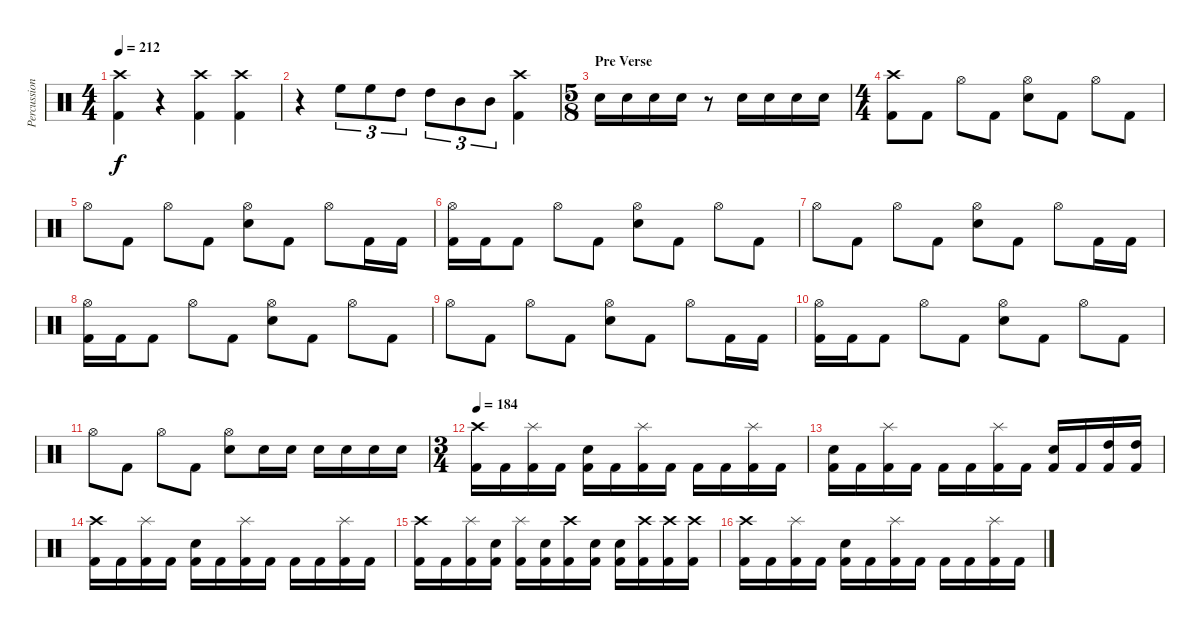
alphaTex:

\track ("Percussion" "Percussion") {instrument percussion}
\staff {score}
\articulation defaults
\ts (4 4)
\tempo 212
\clef neutral
\ks c
("Crash high (hit)" "Kick (hit) 2").4{dy f} r.4 ("Crash high (hit)" "Kick (hit) 2").4 ("Crash high (hit)" "Kick (hit) 2").4 |
r.4 "High Floor Tom (hit)".8{tu (3 2)} "High Floor Tom (hit)".8{tu (3 2)} "High Tom (hit)".8{tu (3 2)} "High Tom (hit)".8{tu (3 2)} "Mid Tom (hit)".8{tu (3 2)} "Mid Tom (hit)".8{tu (3 2)} ("Crash high (hit)" "Kick (hit) 2").4 |
\ts (5 8)
\section ("" "Pre Verse")
"Electric Snare (hit)".16 "Electric Snare (hit)".16 "Electric Snare (hit)".16 "Electric Snare (hit)".16 r.8 "Electric Snare (hit)".16 "Electric Snare (hit)".16 "Electric Snare (hit)".16 "Electric Snare (hit)".16 |
\ts (4 4)
("Crash high (hit)" "Kick (hit) 2").8 "Kick (hit) 2".8 "Hi-Hat (open)".8 "Kick (hit) 2".8 ("Hi-Hat (open)" "Electric Snare (hit)").8 "Kick (hit) 2".8 "Hi-Hat (open)".8 "Kick (hit) 2".8 |
"Hi-Hat (open)".8 "Kick (hit) 2".8 "Hi-Hat (open)".8 "Kick (hit) 2".8 ("Hi-Hat (open)" "Electric Snare (hit)").8 "Kick (hit) 2".8 "Hi-Hat (open)".8 "Kick (hit) 2".16 "Kick (hit) 2".16 |
("Hi-Hat (open)" "Kick (hit) 2").16 "Kick (hit) 2".16 "Kick (hit) 2".8 "Hi-Hat (open)".8 "Kick (hit) 2".8 ("Hi-Hat (open)" "Electric Snare (hit)").8 "Kick (hit) 2".8 "Hi-Hat (open)".8 "Kick (hit) 2".8 |
"Hi-Hat (open)".8 "Kick (hit) 2".8 "Hi-Hat (open)".8 "Kick (hit) 2".8 ("Hi-Hat (open)" "Electric Snare (hit)").8 "Kick (hit) 2".8 "Hi-Hat (open)".8 "Kick (hit) 2".16 "Kick (hit) 2".16 |
("Hi-Hat (open)" "Kick (hit) 2").16 "Kick (hit) 2".16 "Kick (hit) 2".8 "Hi-Hat (open)".8 "Kick (hit) 2".8 ("Hi-Hat (open)" "Electric Snare (hit)").8 "Kick (hit) 2".8 "Hi-Hat (open)".8 "Kick (hit) 2".8 |
"Hi-Hat (open)".8 "Kick (hit) 2".8 "Hi-Hat (open)".8 "Kick (hit) 2".8 ("Hi-Hat (open)" "Electric Snare (hit)").8 "Kick (hit) 2".8 "Hi-Hat (open)".8 "Kick (hit) 2".16 "Kick (hit) 2".16 |
("Hi-Hat (open)" "Kick (hit) 2").16 "Kick (hit) 2".16 "Kick (hit) 2".8 "Hi-Hat (open)".8 "Kick (hit) 2".8 ("Hi-Hat (open)" "Electric Snare (hit)").8 "Kick (hit) 2".8 "Hi-Hat (open)".8 "Kick (hit) 2".8 |
"Hi-Hat (open)".8 "Kick (hit) 2".8 "Hi-Hat (open)".8 "Kick (hit) 2".8 ("Hi-Hat (open)" "Electric Snare (hit)").8 "Electric Snare (hit)".16 "Electric Snare (hit)".16 "Electric Snare (hit)".16 "Electric Snare (hit)".16 "Electric Snare (hit)".16 "Electric Snare (hit)".16 |
\ts (3 4)
\tempo 184
("Crash high (hit)" "Kick (hit) 2").16 "Kick (hit) 2".16 ("Splash (hit)" "Kick (hit) 2").16 "Kick (hit) 2".16 ("Electric Snare (hit)" "Kick (hit) 2").16 "Kick (hit) 2".16 ("Splash (hit)" "Kick (hit) 2").16 "Kick (hit) 2".16 "Kick (hit) 2".16 "Kick (hit) 2".16 ("Splash (hit)" "Kick (hit) 2").16 "Kick (hit) 2".16 |
("Electric Snare (hit)" "Kick (hit) 2").16 "Kick (hit) 2".16 ("Splash (hit)" "Kick (hit) 2").16 "Kick (hit) 2".16 "Kick (hit) 2".16 "Kick (hit) 2".16 ("Splash (hit)" "Kick (hit) 2").16 "Kick (hit) 2".16 ("Electric Snare (hit)" "Kick (hit) 2").16 "Kick (hit) 2".16 ("High Tom (hit)" "Kick (hit) 2").16 ("High Tom (hit)" "Kick (hit) 2").16 |
("Crash high (hit)" "Kick (hit) 2").16 "Kick (hit) 2".16 ("Splash (hit)" "Kick (hit) 2").16 "Kick (hit) 2".16 ("Electric Snare (hit)" "Kick (hit) 2").16 "Kick (hit) 2".16 ("Splash (hit)" "Kick (hit) 2").16 "Kick (hit) 2".16 "Kick (hit) 2".16 "Kick (hit) 2".16 ("Splash (hit)" "Kick (hit) 2").16 "Kick (hit) 2".16 |
("Crash high (hit)" "Kick (hit) 2").16 "Kick (hit) 2".16 ("Splash (hit)" "Kick (hit) 2").16 ("Electric Snare (hit)" "Kick (hit) 2").16 ("Splash (hit)" "Kick (hit) 2").16 ("Electric Snare (hit)" "Kick (hit) 2").16 ("Crash high (hit)" "Kick (hit) 2").16 ("Electric Snare (hit)" "Kick (hit) 2").16 ("Electric Snare (hit)" "Kick (hit) 2").16 ("Crash high (hit)" "Kick (hit) 2").16 ("Crash high (hit)" "Kick (hit) 2").16 ("Crash high (hit)" "Kick (hit) 2").16 |
("Crash high (hit)" "Kick (hit) 2").16 "Kick (hit) 2".16 ("Splash (hit)" "Kick (hit) 2").16 "Kick (hit) 2".16 ("Electric Snare (hit)" "Kick (hit) 2").16 "Kick (hit) 2".16 ("Splash (hit)" "Kick (hit) 2").16 "Kick (hit) 2".16 "Kick (hit) 2".16 "Kick (hit) 2".16 ("Splash (hit)" "Kick (hit) 2").16 "Kick (hit) 2".16
